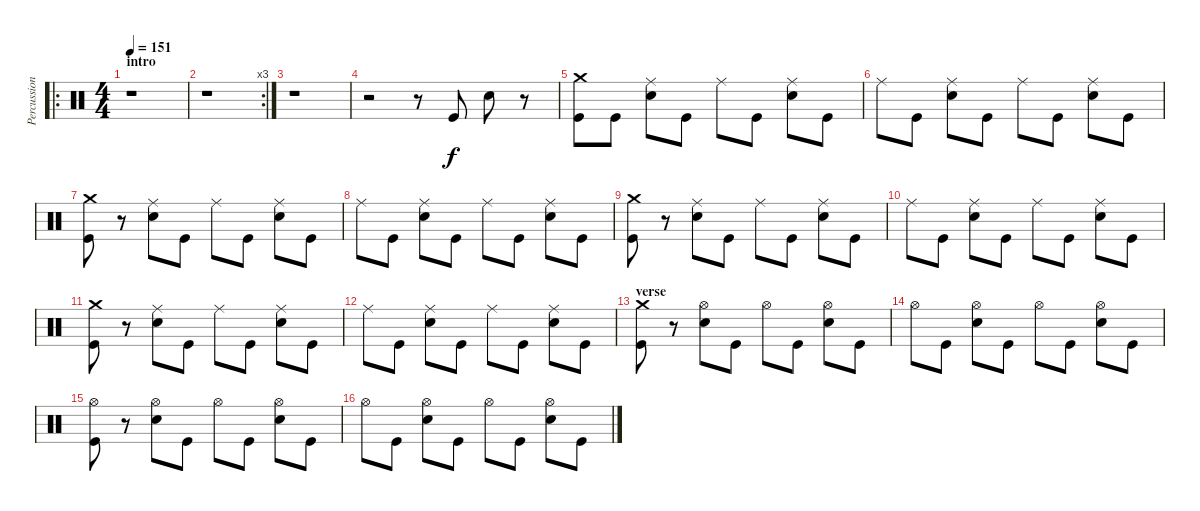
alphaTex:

\track ("Percussion" "Percussion") {instrument percussion}
\staff {score}
\articulation defaults
\ro
\ts (4 4)
\section ("" "intro")
\tempo 151
\clef neutral
\ks c
r.1{dy f} |
\rc 3
r.1 |
r.1 |
r.2 r.8 "Kick (hit)".8 "Electric Snare (hit)".8 r.8 |
("Crash medium (hit)" "Kick (hit)").8 "Kick (hit)".8 ("Ride (middle)" "Electric Snare (hit)").8 "Kick (hit)".8 "Ride (middle)".8 "Kick (hit)".8 ("Ride (middle)" "Electric Snare (hit)").8 "Kick (hit)".8 |
"Ride (middle)".8 "Kick (hit)".8 ("Ride (middle)" "Electric Snare (hit)").8 "Kick (hit)".8 "Ride (middle)".8 "Kick (hit)".8 ("Ride (middle)" "Electric Snare (hit)").8 "Kick (hit)".8 |
("Crash medium (hit)" "Kick (hit)").8 r.8 ("Ride (middle)" "Electric Snare (hit)").8 "Kick (hit)".8 "Ride (middle)".8 "Kick (hit)".8 ("Ride (middle)" "Electric Snare (hit)").8 "Kick (hit)".8 |
"Ride (middle)".8 "Kick (hit)".8 ("Ride (middle)" "Electric Snare (hit)").8 "Kick (hit)".8 "Ride (middle)".8 "Kick (hit)".8 ("Ride (middle)" "Electric Snare (hit)").8 "Kick (hit)".8 |
("Crash medium (hit)" "Kick (hit)").8 r.8 ("Ride (middle)" "Electric Snare (hit)").8 "Kick (hit)".8 "Ride (middle)".8 "Kick (hit)".8 ("Ride (middle)" "Electric Snare (hit)").8 "Kick (hit)".8 |
"Ride (middle)".8 "Kick (hit)".8 ("Ride (middle)" "Electric Snare (hit)").8 "Kick (hit)".8 "Ride (middle)".8 "Kick (hit)".8 ("Ride (middle)" "Electric Snare (hit)").8 "Kick (hit)".8 |
("Crash medium (hit)" "Kick (hit)").8 r.8 ("Ride (middle)" "Electric Snare (hit)").8 "Kick (hit)".8 "Ride (middle)".8 "Kick (hit)".8 ("Ride (middle)" "Electric Snare (hit)").8 "Kick (hit)".8 |
"Ride (middle)".8 "Kick (hit)".8 ("Ride (middle)" "Electric Snare (hit)").8 "Kick (hit)".8 "Ride (middle)".8 "Kick (hit)".8 ("Ride (middle)" "Electric Snare (hit)").8 "Kick (hit)".8 |
\section ("" "verse")
("Crash medium (hit)" "Kick (hit)").8 r.8 ("Hi-Hat (open)" "Electric Snare (hit)").8 "Kick (hit)".8 "Hi-Hat (open)".8 "Kick (hit)".8 ("Hi-Hat (open)" "Electric Snare (hit)").8 "Kick (hit)".8 |
"Hi-Hat (open)".8 "Kick (hit)".8 ("Hi-Hat (open)" "Electric Snare (hit)").8 "Kick (hit)".8 "Hi-Hat (open)".8 "Kick (hit)".8 ("Hi-Hat (open)" "Electric Snare (hit)").8 "Kick (hit)".8 |
("Hi-Hat (open)" "Kick (hit)").8 r.8 ("Hi-Hat (open)" "Electric Snare (hit)").8 "Kick (hit)".8 "Hi-Hat (open)".8 "Kick (hit)".8 ("Hi-Hat (open)" "Electric Snare (hit)").8 "Kick (hit)".8 |
"Hi-Hat (open)".8 "Kick (hit)".8 ("Hi-Hat (open)" "Electric Snare (hit)").8 "Kick (hit)".8 "Hi-Hat (open)".8 "Kick (hit)".8 ("Hi-Hat (open)" "Electric Snare (hit)").8 "Kick (hit)".8
